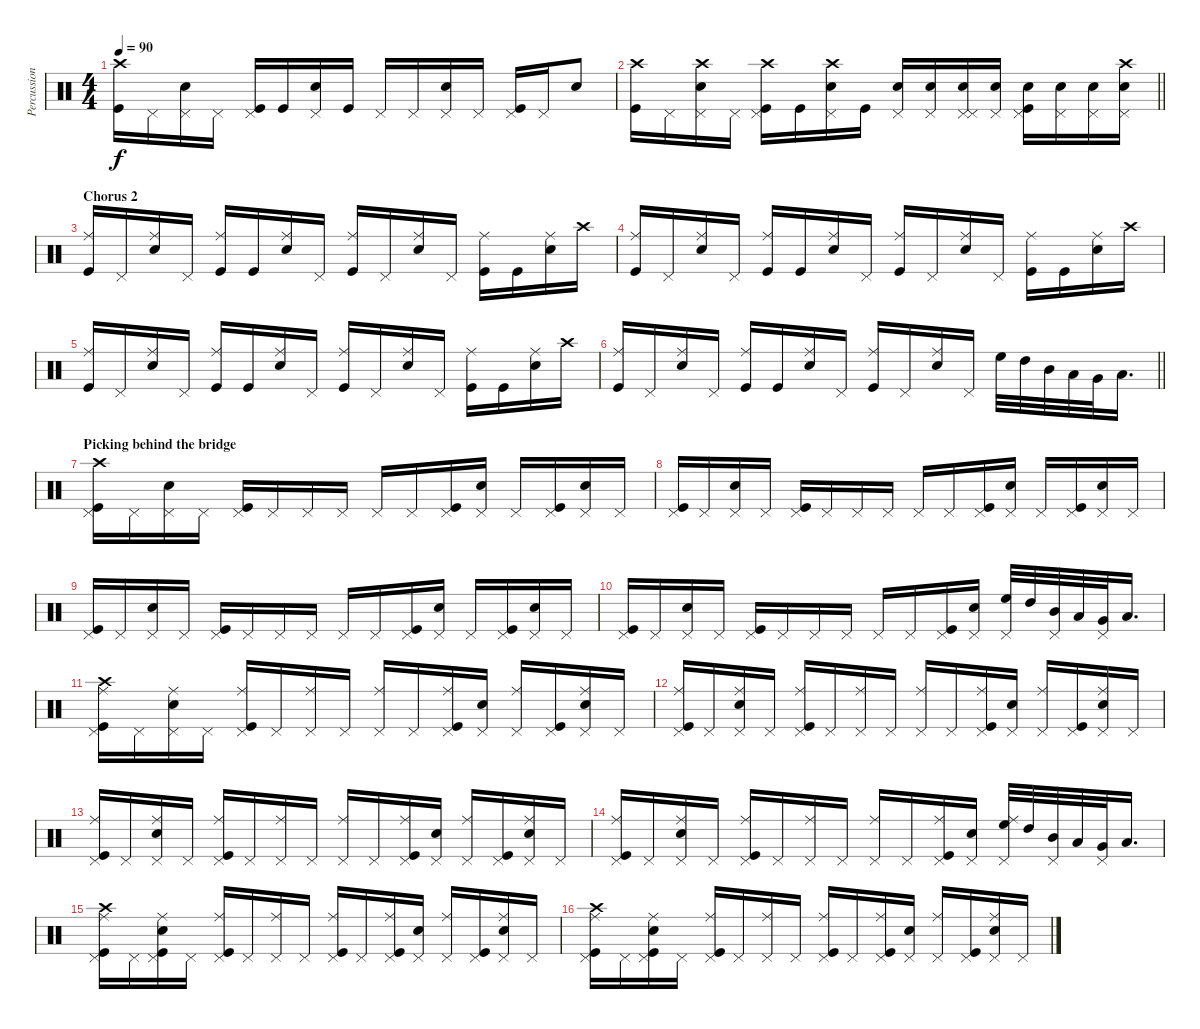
\track ("Percussion" "Percussion") {instrument percussion}
\staff {score}
\articulation defaults
\ts (4 4)
\tempo 90
\clef neutral
\ks c
("Crash high (hit)" "Kick (hit)").16{dy f} "Pedal Hi-Hat (hit)".16 ("Pedal Hi-Hat (hit)" "Snare (hit) 2").16 "Pedal Hi-Hat (hit)".16 ("Pedal Hi-Hat (hit)" "Kick (hit)").16 "Kick (hit)".16 ("Pedal Hi-Hat (hit)" "Snare (hit) 2").16 "Kick (hit)".16 "Pedal Hi-Hat (hit)".16 "Pedal Hi-Hat (hit)".16 ("Pedal Hi-Hat (hit)" "Snare (hit) 2").16 "Pedal Hi-Hat (hit)".16 ("Pedal Hi-Hat (hit)" "Kick (hit)").16 "Pedal Hi-Hat (hit)".16 "Snare (hit) 2".8 |
\barLineRight lightlight
("Crash high (hit)" "Kick (hit)").16 "Pedal Hi-Hat (hit)".16 ("Pedal Hi-Hat (hit)" "Crash high (hit)" "Snare (hit) 2").16 "Pedal Hi-Hat (hit)".16 ("Pedal Hi-Hat (hit)" "Kick (hit)" "Crash high (hit)").16 "Kick (hit)".16 ("Pedal Hi-Hat (hit)" "Crash high (hit)" "Snare (hit) 2").16 "Kick (hit)".16 ("Pedal Hi-Hat (hit)" "Snare (hit) 2").16 ("Snare (hit) 2" "Pedal Hi-Hat (hit)").16 ("Pedal Hi-Hat (hit)" "Pedal Hi-Hat (hit)" "Snare (hit) 2").16 ("Snare (hit) 2" "Pedal Hi-Hat (hit)").16 ("Pedal Hi-Hat (hit)" "Snare (hit) 2" "Kick (hit)").16 ("Snare (hit) 2" "Pedal Hi-Hat (hit)").16 ("Pedal Hi-Hat (hit)" "Snare (hit) 2").16 ("Snare (hit) 2" "Crash high (hit)" "Pedal Hi-Hat (hit)").16 |
\section ("" "Chorus 2")
("Ride (middle)" "Kick (hit)").16 "Pedal Hi-Hat (hit)".16 ("Ride (middle)" "Snare (hit) 2").16 "Pedal Hi-Hat (hit)".16 ("Ride (middle)" "Kick (hit)").16 "Kick (hit)".16 ("Ride (middle)" "Snare (hit) 2").16 "Pedal Hi-Hat (hit)".16 ("Ride (middle)" "Kick (hit)").16 "Pedal Hi-Hat (hit)".16 ("Ride (middle)" "Snare (hit) 2").16 "Pedal Hi-Hat (hit)".16 ("Ride (middle)" "Kick (hit)").16 "Kick (hit)".16 ("Ride (middle)" "Snare (hit) 2").16 "Crash high (hit)".16 |
("Ride (middle)" "Kick (hit)").16 "Pedal Hi-Hat (hit)".16 ("Ride (middle)" "Snare (hit) 2").16 "Pedal Hi-Hat (hit)".16 ("Ride (middle)" "Kick (hit)").16 "Kick (hit)".16 ("Ride (middle)" "Snare (hit) 2").16 "Pedal Hi-Hat (hit)".16 ("Ride (middle)" "Kick (hit)").16 "Pedal Hi-Hat (hit)".16 ("Ride (middle)" "Snare (hit) 2").16 "Pedal Hi-Hat (hit)".16 ("Ride (middle)" "Kick (hit)").16 "Kick (hit)".16 ("Ride (middle)" "Snare (hit) 2").16 "Crash high (hit)".16 |
("Ride (middle)" "Kick (hit)").16 "Pedal Hi-Hat (hit)".16 ("Ride (middle)" "Snare (hit) 2").16 "Pedal Hi-Hat (hit)".16 ("Ride (middle)" "Kick (hit)").16 "Kick (hit)".16 ("Ride (middle)" "Snare (hit) 2").16 "Pedal Hi-Hat (hit)".16 ("Ride (middle)" "Kick (hit)").16 "Pedal Hi-Hat (hit)".16 ("Ride (middle)" "Snare (hit) 2").16 "Pedal Hi-Hat (hit)".16 ("Ride (middle)" "Kick (hit)").16 "Kick (hit)".16 ("Ride (middle)" "Snare (hit) 2").16 "Crash high (hit)".16 |
\barLineRight lightlight
("Ride (middle)" "Kick (hit)").16 "Pedal Hi-Hat (hit)".16 ("Ride (middle)" "Snare (hit) 2").16 "Pedal Hi-Hat (hit)".16 ("Ride (middle)" "Kick (hit)").16 "Kick (hit)".16 ("Ride (middle)" "Snare (hit) 2").16 "Pedal Hi-Hat (hit)".16 ("Ride (middle)" "Kick (hit)").16 "Pedal Hi-Hat (hit)".16 ("Ride (middle)" "Snare (hit) 2").16 "Pedal Hi-Hat (hit)".16 "High Floor Tom (hit)".32 "High Tom (hit)".32 "Mid Tom (hit)".32 "Low Tom (hit)".32 "Very Low Tom (hit)".32 "Low Floor Tom (hit)".16{d} |
\section ("" "Picking behind the bridge")
("Kick (hit)" "Pedal Hi-Hat (hit)" "Crash high (hit)").16 "Pedal Hi-Hat (hit)".16 ("Snare (hit) 2" "Pedal Hi-Hat (hit)").16 "Pedal Hi-Hat (hit)".16 ("Kick (hit)" "Pedal Hi-Hat (hit)").16 "Pedal Hi-Hat (hit)".16 "Pedal Hi-Hat (hit)".16 "Pedal Hi-Hat (hit)".16 "Pedal Hi-Hat (hit)".16 "Pedal Hi-Hat (hit)".16 ("Kick (hit)" "Pedal Hi-Hat (hit)").16 ("Snare (hit) 2" "Pedal Hi-Hat (hit)").16 "Pedal Hi-Hat (hit)".16 ("Kick (hit)" "Pedal Hi-Hat (hit)").16 ("Pedal Hi-Hat (hit)" "Snare (hit) 2").16 "Pedal Hi-Hat (hit)".16 |
("Kick (hit)" "Pedal Hi-Hat (hit)").16 "Pedal Hi-Hat (hit)".16 ("Snare (hit) 2" "Pedal Hi-Hat (hit)").16 "Pedal Hi-Hat (hit)".16 ("Kick (hit)" "Pedal Hi-Hat (hit)").16 "Pedal Hi-Hat (hit)".16 "Pedal Hi-Hat (hit)".16 "Pedal Hi-Hat (hit)".16 "Pedal Hi-Hat (hit)".16 "Pedal Hi-Hat (hit)".16 ("Kick (hit)" "Pedal Hi-Hat (hit)").16 ("Snare (hit) 2" "Pedal Hi-Hat (hit)").16 "Pedal Hi-Hat (hit)".16 ("Kick (hit)" "Pedal Hi-Hat (hit)").16 ("Pedal Hi-Hat (hit)" "Snare (hit) 2").16 "Pedal Hi-Hat (hit)".16 |
("Kick (hit)" "Pedal Hi-Hat (hit)").16 "Pedal Hi-Hat (hit)".16 ("Snare (hit) 2" "Pedal Hi-Hat (hit)").16 "Pedal Hi-Hat (hit)".16 ("Kick (hit)" "Pedal Hi-Hat (hit)").16 "Pedal Hi-Hat (hit)".16 "Pedal Hi-Hat (hit)".16 "Pedal Hi-Hat (hit)".16 "Pedal Hi-Hat (hit)".16 "Pedal Hi-Hat (hit)".16 ("Kick (hit)" "Pedal Hi-Hat (hit)").16 ("Snare (hit) 2" "Pedal Hi-Hat (hit)").16 "Pedal Hi-Hat (hit)".16 ("Kick (hit)" "Pedal Hi-Hat (hit)").16 ("Pedal Hi-Hat (hit)" "Snare (hit) 2").16 "Pedal Hi-Hat (hit)".16 |
("Kick (hit)" "Pedal Hi-Hat (hit)").16 "Pedal Hi-Hat (hit)".16 ("Snare (hit) 2" "Pedal Hi-Hat (hit)").16 "Pedal Hi-Hat (hit)".16 ("Kick (hit)" "Pedal Hi-Hat (hit)").16 "Pedal Hi-Hat (hit)".16 "Pedal Hi-Hat (hit)".16 "Pedal Hi-Hat (hit)".16 "Pedal Hi-Hat (hit)".16 "Pedal Hi-Hat (hit)".16 ("Kick (hit)" "Pedal Hi-Hat (hit)").16 ("Snare (hit) 2" "Pedal Hi-Hat (hit)").16 ("High Floor Tom (hit)" "Pedal Hi-Hat (hit)").32 "High Tom (hit)".32 ("Mid Tom (hit)" "Pedal Hi-Hat (hit)").32 "Low Tom (hit)".32 ("Very Low Tom (hit)" "Pedal Hi-Hat (hit)").32 "Low Floor Tom (hit)".16{d} |
("Kick (hit)" "Ride (middle)" "Pedal Hi-Hat (hit)" "Crash high (hit)").16 "Pedal Hi-Hat (hit)".16 ("Ride (middle)" "Snare (hit) 2" "Pedal Hi-Hat (hit)").16 "Pedal Hi-Hat (hit)".16 ("Kick (hit)" "Ride (middle)" "Pedal Hi-Hat (hit)").16 "Pedal Hi-Hat (hit)".16 ("Ride (middle)" "Pedal Hi-Hat (hit)").16 "Pedal Hi-Hat (hit)".16 ("Ride (middle)" "Pedal Hi-Hat (hit)").16 "Pedal Hi-Hat (hit)".16 ("Kick (hit)" "Ride (middle)" "Pedal Hi-Hat (hit)").16 ("Snare (hit) 2" "Pedal Hi-Hat (hit)").16 ("Pedal Hi-Hat (hit)" "Ride (middle)").16 ("Kick (hit)" "Pedal Hi-Hat (hit)").16 ("Pedal Hi-Hat (hit)" "Snare (hit) 2" "Ride (middle)").16 "Pedal Hi-Hat (hit)".16 |
("Kick (hit)" "Ride (middle)" "Pedal Hi-Hat (hit)").16 "Pedal Hi-Hat (hit)".16 ("Ride (middle)" "Snare (hit) 2" "Pedal Hi-Hat (hit)").16 "Pedal Hi-Hat (hit)".16 ("Kick (hit)" "Ride (middle)" "Pedal Hi-Hat (hit)").16 "Pedal Hi-Hat (hit)".16 ("Ride (middle)" "Pedal Hi-Hat (hit)").16 "Pedal Hi-Hat (hit)".16 ("Ride (middle)" "Pedal Hi-Hat (hit)").16 "Pedal Hi-Hat (hit)".16 ("Kick (hit)" "Ride (middle)" "Pedal Hi-Hat (hit)").16 ("Snare (hit) 2" "Pedal Hi-Hat (hit)").16 ("Pedal Hi-Hat (hit)" "Ride (middle)").16 ("Kick (hit)" "Pedal Hi-Hat (hit)").16 ("Pedal Hi-Hat (hit)" "Snare (hit) 2" "Ride (middle)").16 "Pedal Hi-Hat (hit)".16 |
("Kick (hit)" "Ride (middle)" "Pedal Hi-Hat (hit)").16 "Pedal Hi-Hat (hit)".16 ("Ride (middle)" "Snare (hit) 2" "Pedal Hi-Hat (hit)").16 "Pedal Hi-Hat (hit)".16 ("Kick (hit)" "Ride (middle)" "Pedal Hi-Hat (hit)").16 "Pedal Hi-Hat (hit)".16 ("Ride (middle)" "Pedal Hi-Hat (hit)").16 "Pedal Hi-Hat (hit)".16 ("Ride (middle)" "Pedal Hi-Hat (hit)").16 "Pedal Hi-Hat (hit)".16 ("Kick (hit)" "Ride (middle)" "Pedal Hi-Hat (hit)").16 ("Snare (hit) 2" "Pedal Hi-Hat (hit)").16 ("Pedal Hi-Hat (hit)" "Ride (middle)").16 ("Kick (hit)" "Pedal Hi-Hat (hit)").16 ("Pedal Hi-Hat (hit)" "Snare (hit) 2" "Ride (middle)").16 "Pedal Hi-Hat (hit)".16 |
("Kick (hit)" "Ride (middle)" "Pedal Hi-Hat (hit)").16 "Pedal Hi-Hat (hit)".16 ("Ride (middle)" "Snare (hit) 2" "Pedal Hi-Hat (hit)").16 "Pedal Hi-Hat (hit)".16 ("Kick (hit)" "Ride (middle)" "Pedal Hi-Hat (hit)").16 "Pedal Hi-Hat (hit)".16 ("Ride (middle)" "Pedal Hi-Hat (hit)").16 "Pedal Hi-Hat (hit)".16 ("Ride (middle)" "Pedal Hi-Hat (hit)").16 "Pedal Hi-Hat (hit)".16 ("Kick (hit)" "Ride (middle)" "Pedal Hi-Hat (hit)").16 ("Snare (hit) 2" "Pedal Hi-Hat (hit)").16 ("High Floor Tom (hit)" "Pedal Hi-Hat (hit)" "Ride (middle)").32 "High Tom (hit)".32 ("Mid Tom (hit)" "Pedal Hi-Hat (hit)").32 "Low Tom (hit)".32 ("Very Low Tom (hit)" "Pedal Hi-Hat (hit)").32 "Low Floor Tom (hit)".16{d} |
("Kick (hit)" "Ride (middle)" "Pedal Hi-Hat (hit)" "Crash high (hit)").16 "Pedal Hi-Hat (hit)".16 ("Ride (middle)" "Snare (hit) 2" "Pedal Hi-Hat (hit)" "Kick (hit)").16 "Pedal Hi-Hat (hit)".16 ("Kick (hit)" "Ride (middle)" "Pedal Hi-Hat (hit)").16 "Pedal Hi-Hat (hit)".16 ("Ride (middle)" "Pedal Hi-Hat (hit)").16 "Pedal Hi-Hat (hit)".16 ("Ride (middle)" "Pedal Hi-Hat (hit)" "Kick (hit)").16 "Pedal Hi-Hat (hit)".16 ("Kick (hit)" "Ride (middle)" "Pedal Hi-Hat (hit)").16 ("Snare (hit) 2" "Pedal Hi-Hat (hit)").16 ("Pedal Hi-Hat (hit)" "Ride (middle)").16 ("Kick (hit)" "Pedal Hi-Hat (hit)").16 ("Pedal Hi-Hat (hit)" "Snare (hit) 2" "Ride (middle)").16 "Pedal Hi-Hat (hit)".16 |
("Kick (hit)" "Ride (middle)" "Pedal Hi-Hat (hit)" "Crash high (hit)").16 "Pedal Hi-Hat (hit)".16 ("Ride (middle)" "Snare (hit) 2" "Pedal Hi-Hat (hit)" "Kick (hit)").16 "Pedal Hi-Hat (hit)".16 ("Kick (hit)" "Ride (middle)" "Pedal Hi-Hat (hit)").16 "Pedal Hi-Hat (hit)".16 ("Ride (middle)" "Pedal Hi-Hat (hit)").16 "Pedal Hi-Hat (hit)".16 ("Ride (middle)" "Pedal Hi-Hat (hit)" "Kick (hit)").16 "Pedal Hi-Hat (hit)".16 ("Kick (hit)" "Ride (middle)" "Pedal Hi-Hat (hit)").16 ("Snare (hit) 2" "Pedal Hi-Hat (hit)").16 ("Pedal Hi-Hat (hit)" "Ride (middle)").16 ("Kick (hit)" "Pedal Hi-Hat (hit)").16 ("Pedal Hi-Hat (hit)" "Snare (hit) 2" "Ride (middle)").16 "Pedal Hi-Hat (hit)".16
